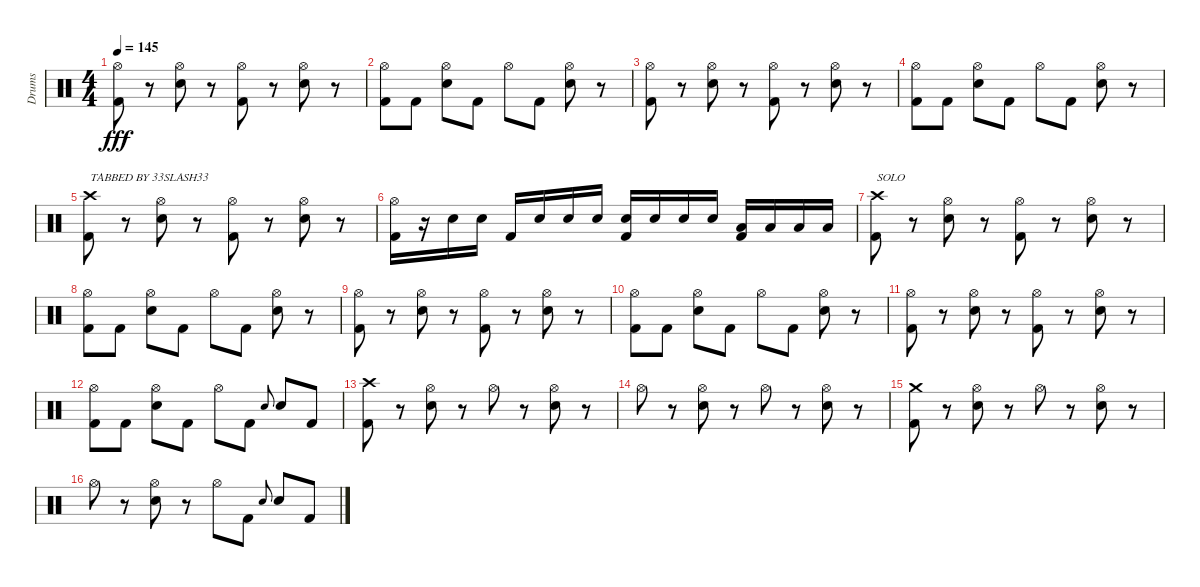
\track ("Drums" "Drums") {instrument percussion}
\staff {score}
\articulation defaults
\ts (4 4)
\tempo 145
\clef neutral
\ks c
("Hi-Hat (open)" "Kick (hit) 2").8{dy fff} r.8 ("Hi-Hat (open)" "Snare (hit) 2").8 r.8 ("Hi-Hat (open)" "Kick (hit) 2").8 r.8 ("Hi-Hat (open)" "Snare (hit) 2").8 r.8 |
("Hi-Hat (open)" "Kick (hit) 2").8 "Kick (hit) 2".8 ("Hi-Hat (open)" "Snare (hit) 2").8 "Kick (hit) 2".8 "Hi-Hat (open)".8 "Kick (hit) 2".8 ("Hi-Hat (open)" "Snare (hit) 2").8 r.8 |
("Hi-Hat (open)" "Kick (hit) 2").8 r.8 ("Hi-Hat (open)" "Snare (hit) 2").8 r.8 ("Hi-Hat (open)" "Kick (hit) 2").8 r.8 ("Hi-Hat (open)" "Snare (hit) 2").8 r.8 |
("Hi-Hat (open)" "Kick (hit) 2").8 "Kick (hit) 2".8 ("Hi-Hat (open)" "Snare (hit) 2").8 "Kick (hit) 2".8 "Hi-Hat (open)".8 "Kick (hit) 2".8 ("Hi-Hat (open)" "Snare (hit) 2").8 r.8 |
("Crash high (hit)" "Kick (hit) 2").8{txt "TABBED BY 33SLASH33"} r.8 ("Hi-Hat (open)" "Snare (hit) 2").8 r.8 ("Hi-Hat (open)" "Kick (hit) 2").8 r.8 ("Hi-Hat (open)" "Snare (hit) 2").8 r.8 |
("Hi-Hat (open)" "Kick (hit) 2").16 r.16 "Snare (hit) 2".16 "Snare (hit) 2".16 "Kick (hit) 2".16 "Snare (hit) 2".16 "Snare (hit) 2".16 "Snare (hit) 2".16 ("Snare (hit) 2" "Kick (hit) 2").16 "Snare (hit) 2".16 "Snare (hit) 2".16 "Snare (hit) 2".16 ("Low Tom (hit)" "Kick (hit) 2").16 "Low Tom (hit)".16 "Low Floor Tom (hit)".16 "Low Floor Tom (hit)".16 |
("Crash high (hit)" "Kick (hit) 2").8{txt "SOLO"} r.8 ("Hi-Hat (open)" "Snare (hit) 2").8 r.8 ("Hi-Hat (open)" "Kick (hit) 2").8 r.8 ("Hi-Hat (open)" "Snare (hit) 2").8 r.8 |
("Hi-Hat (open)" "Kick (hit) 2").8 "Kick (hit) 2".8 ("Hi-Hat (open)" "Snare (hit) 2").8 "Kick (hit) 2".8 "Hi-Hat (open)".8 "Kick (hit) 2".8 ("Hi-Hat (open)" "Snare (hit) 2").8 r.8 |
("Hi-Hat (open)" "Kick (hit) 2").8 r.8 ("Hi-Hat (open)" "Snare (hit) 2").8 r.8 ("Hi-Hat (open)" "Kick (hit) 2").8 r.8 ("Hi-Hat (open)" "Snare (hit) 2").8 r.8 |
("Hi-Hat (open)" "Kick (hit) 2").8 "Kick (hit) 2".8 ("Hi-Hat (open)" "Snare (hit) 2").8 "Kick (hit) 2".8 "Hi-Hat (open)".8 "Kick (hit) 2".8 ("Hi-Hat (open)" "Snare (hit) 2").8 r.8 |
("Hi-Hat (open)" "Kick (hit) 2").8 r.8 ("Hi-Hat (open)" "Snare (hit) 2").8 r.8 ("Hi-Hat (open)" "Kick (hit) 2").8 r.8 ("Hi-Hat (open)" "Snare (hit) 2").8 r.8 |
("Hi-Hat (open)" "Kick (hit) 2").8 "Kick (hit) 2".8 ("Hi-Hat (open)" "Snare (hit) 2").8 "Kick (hit) 2".8 "Hi-Hat (open)".8 "Kick (hit) 2".8 "Snare (hit) 2".8{gr onbeat} "Snare (hit) 2".8 "Kick (hit) 2".8 |
("Crash high (hit)" "Kick (hit) 2").8 r.8 ("Hi-Hat (open)" "Snare (hit) 2").8 r.8 "Hi-Hat (open)".8 r.8 ("Hi-Hat (open)" "Snare (hit) 2").8 r.8 |
"Hi-Hat (open)".8 r.8 ("Hi-Hat (open)" "Snare (hit) 2").8 r.8 "Hi-Hat (open)".8 r.8 ("Hi-Hat (open)" "Snare (hit) 2").8 r.8 |
("Crash medium (hit)" "Kick (hit) 2").8 r.8 ("Hi-Hat (open)" "Snare (hit) 2").8 r.8 "Hi-Hat (open)".8 r.8 ("Hi-Hat (open)" "Snare (hit) 2").8 r.8 |
"Hi-Hat (open)".8 r.8 ("Hi-Hat (open)" "Snare (hit) 2").8 r.8 "Hi-Hat (open)".8 "Kick (hit) 2".8 "Snare (hit) 2".8{gr onbeat} "Snare (hit) 2".8 "Kick (hit) 2".8
